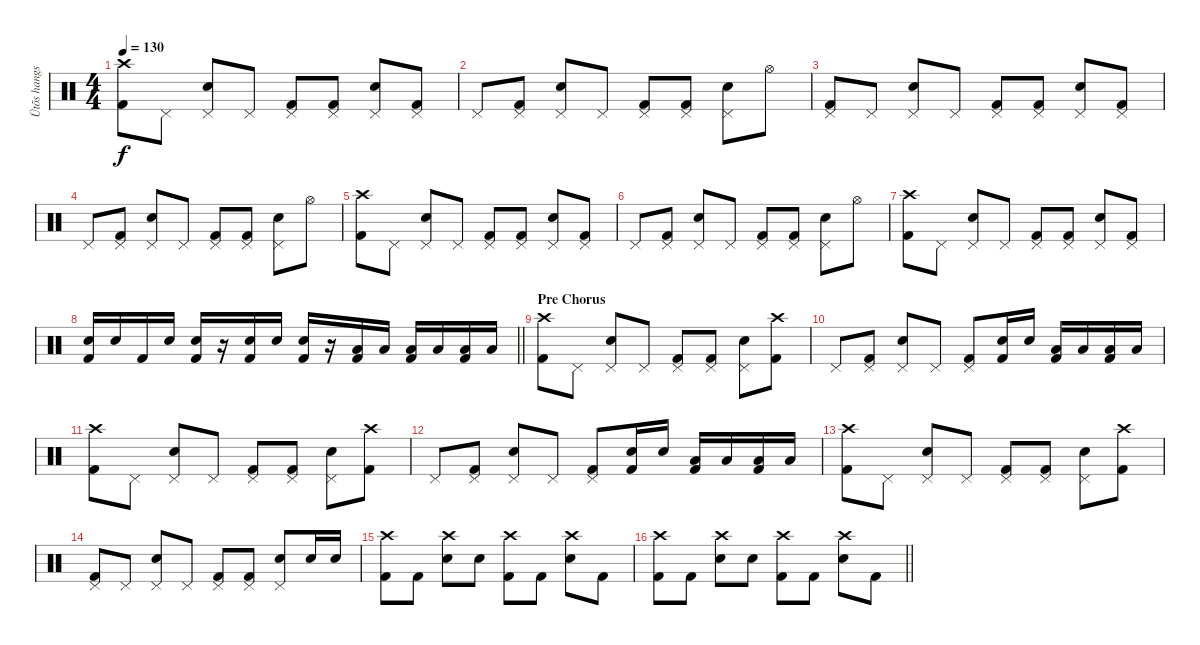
\track ("Ütõs hangszer" "Ütõs hangs") {instrument percussion}
\staff {score}
\articulation defaults
\ts (4 4)
\tempo 130
\clef neutral
\ks c
("Crash high (hit)" "Kick (hit) 2").8{dy f} "Pedal Hi-Hat (hit)".8 ("Pedal Hi-Hat (hit)" "Snare (hit) 2").8 "Pedal Hi-Hat (hit)".8 ("Pedal Hi-Hat (hit)" "Kick (hit) 2").8 ("Pedal Hi-Hat (hit)" "Kick (hit) 2").8 ("Pedal Hi-Hat (hit)" "Snare (hit) 2").8 ("Pedal Hi-Hat (hit)" "Kick (hit) 2").8 |
"Pedal Hi-Hat (hit)".8 ("Pedal Hi-Hat (hit)" "Kick (hit) 2").8 ("Pedal Hi-Hat (hit)" "Snare (hit) 2").8 "Pedal Hi-Hat (hit)".8 ("Pedal Hi-Hat (hit)" "Kick (hit) 2").8 ("Pedal Hi-Hat (hit)" "Kick (hit) 2").8 ("Pedal Hi-Hat (hit)" "Snare (hit) 2").8 "Hi-Hat (open)".8 |
("Pedal Hi-Hat (hit)" "Kick (hit) 2").8 "Pedal Hi-Hat (hit)".8 ("Pedal Hi-Hat (hit)" "Snare (hit) 2").8 "Pedal Hi-Hat (hit)".8 ("Pedal Hi-Hat (hit)" "Kick (hit) 2").8 ("Pedal Hi-Hat (hit)" "Kick (hit) 2").8 ("Pedal Hi-Hat (hit)" "Snare (hit) 2").8 ("Pedal Hi-Hat (hit)" "Kick (hit) 2").8 |
"Pedal Hi-Hat (hit)".8 ("Pedal Hi-Hat (hit)" "Kick (hit) 2").8 ("Pedal Hi-Hat (hit)" "Snare (hit) 2").8 "Pedal Hi-Hat (hit)".8 ("Pedal Hi-Hat (hit)" "Kick (hit) 2").8 ("Pedal Hi-Hat (hit)" "Kick (hit) 2").8 ("Pedal Hi-Hat (hit)" "Snare (hit) 2").8 "Hi-Hat (open)".8 |
("Crash high (hit)" "Kick (hit) 2").8 "Pedal Hi-Hat (hit)".8 ("Pedal Hi-Hat (hit)" "Snare (hit) 2").8 "Pedal Hi-Hat (hit)".8 ("Pedal Hi-Hat (hit)" "Kick (hit) 2").8 ("Pedal Hi-Hat (hit)" "Kick (hit) 2").8 ("Pedal Hi-Hat (hit)" "Snare (hit) 2").8 ("Pedal Hi-Hat (hit)" "Kick (hit) 2").8 |
"Pedal Hi-Hat (hit)".8 ("Pedal Hi-Hat (hit)" "Kick (hit) 2").8 ("Pedal Hi-Hat (hit)" "Snare (hit) 2").8 "Pedal Hi-Hat (hit)".8 ("Pedal Hi-Hat (hit)" "Kick (hit) 2").8 ("Pedal Hi-Hat (hit)" "Kick (hit) 2").8 ("Pedal Hi-Hat (hit)" "Snare (hit) 2").8 "Hi-Hat (open)".8 |
("Crash high (hit)" "Kick (hit) 2").8 "Pedal Hi-Hat (hit)".8 ("Pedal Hi-Hat (hit)" "Snare (hit) 2").8 "Pedal Hi-Hat (hit)".8 ("Pedal Hi-Hat (hit)" "Kick (hit) 2").8 ("Pedal Hi-Hat (hit)" "Kick (hit) 2").8 ("Pedal Hi-Hat (hit)" "Snare (hit) 2").8 ("Pedal Hi-Hat (hit)" "Kick (hit) 2").8 |
\barLineRight lightlight
("Snare (hit) 2" "Kick (hit) 2").16 "Snare (hit) 2".16 "Kick (hit) 2".16 "Snare (hit) 2".16 ("Snare (hit) 2" "Kick (hit) 2").16 r.16 ("Snare (hit) 2" "Kick (hit) 2").16 "Snare (hit) 2".16 ("Snare (hit) 2" "Kick (hit) 2").16 r.16 ("Low Tom (hit)" "Kick (hit) 2").16 "Low Tom (hit)".16 ("Kick (hit) 2" "Low Floor Tom (hit)").16 "Low Floor Tom (hit)".16 ("Kick (hit) 2" "Low Floor Tom (hit)").16 "Low Floor Tom (hit)".16 |
\section ("" "Pre Chorus")
("Crash high (hit)" "Kick (hit) 2").8 "Pedal Hi-Hat (hit)".8 ("Pedal Hi-Hat (hit)" "Snare (hit) 2").8 "Pedal Hi-Hat (hit)".8 ("Pedal Hi-Hat (hit)" "Kick (hit) 2").8 ("Pedal Hi-Hat (hit)" "Kick (hit) 2").8 ("Pedal Hi-Hat (hit)" "Snare (hit) 2").8 ("Crash high (hit)" "Kick (hit) 2").8 |
"Pedal Hi-Hat (hit)".8 ("Pedal Hi-Hat (hit)" "Kick (hit) 2").8 ("Pedal Hi-Hat (hit)" "Snare (hit) 2").8 "Pedal Hi-Hat (hit)".8 ("Pedal Hi-Hat (hit)" "Kick (hit) 2").8 ("Snare (hit) 2" "Kick (hit) 2").16 "Snare (hit) 2".16 ("Low Tom (hit)" "Kick (hit) 2").16 "Low Tom (hit)".16 ("Kick (hit) 2" "Low Floor Tom (hit)").16 "Low Floor Tom (hit)".16 |
("Crash high (hit)" "Kick (hit) 2").8 "Pedal Hi-Hat (hit)".8 ("Pedal Hi-Hat (hit)" "Snare (hit) 2").8 "Pedal Hi-Hat (hit)".8 ("Pedal Hi-Hat (hit)" "Kick (hit) 2").8 ("Pedal Hi-Hat (hit)" "Kick (hit) 2").8 ("Pedal Hi-Hat (hit)" "Snare (hit) 2").8 ("Crash high (hit)" "Kick (hit) 2").8 |
"Pedal Hi-Hat (hit)".8 ("Pedal Hi-Hat (hit)" "Kick (hit) 2").8 ("Pedal Hi-Hat (hit)" "Snare (hit) 2").8 "Pedal Hi-Hat (hit)".8 ("Pedal Hi-Hat (hit)" "Kick (hit) 2").8 ("Snare (hit) 2" "Kick (hit) 2").16 "Snare (hit) 2".16 ("Low Tom (hit)" "Kick (hit) 2").16 "Low Tom (hit)".16 ("Kick (hit) 2" "Low Floor Tom (hit)").16 "Low Floor Tom (hit)".16 |
("Crash high (hit)" "Kick (hit) 2").8 "Pedal Hi-Hat (hit)".8 ("Pedal Hi-Hat (hit)" "Snare (hit) 2").8 "Pedal Hi-Hat (hit)".8 ("Pedal Hi-Hat (hit)" "Kick (hit) 2").8 ("Pedal Hi-Hat (hit)" "Kick (hit) 2").8 ("Pedal Hi-Hat (hit)" "Snare (hit) 2").8 ("Crash high (hit)" "Kick (hit) 2").8 |
("Pedal Hi-Hat (hit)" "Kick (hit) 2").8 "Pedal Hi-Hat (hit)".8 ("Pedal Hi-Hat (hit)" "Snare (hit) 2").8 "Pedal Hi-Hat (hit)".8 ("Pedal Hi-Hat (hit)" "Kick (hit) 2").8 ("Pedal Hi-Hat (hit)" "Kick (hit) 2").8 ("Pedal Hi-Hat (hit)" "Snare (hit) 2").8 "Snare (hit) 2".16 "Snare (hit) 2".16 |
("Crash high (hit)" "Kick (hit) 2").8 "Kick (hit) 2".8 ("Crash high (hit)" "Snare (hit) 2").8 "Snare (hit) 2".8 ("Crash high (hit)" "Kick (hit) 2").8 "Kick (hit) 2".8 ("Crash high (hit)" "Snare (hit) 2").8 "Kick (hit) 2".8 |
\barLineRight lightlight
("Crash high (hit)" "Kick (hit) 2").8 "Kick (hit) 2".8 ("Crash high (hit)" "Snare (hit) 2").8 "Snare (hit) 2".8 ("Crash high (hit)" "Kick (hit) 2").8 "Kick (hit) 2".8 ("Crash high (hit)" "Snare (hit) 2").8 "Kick (hit) 2".8
